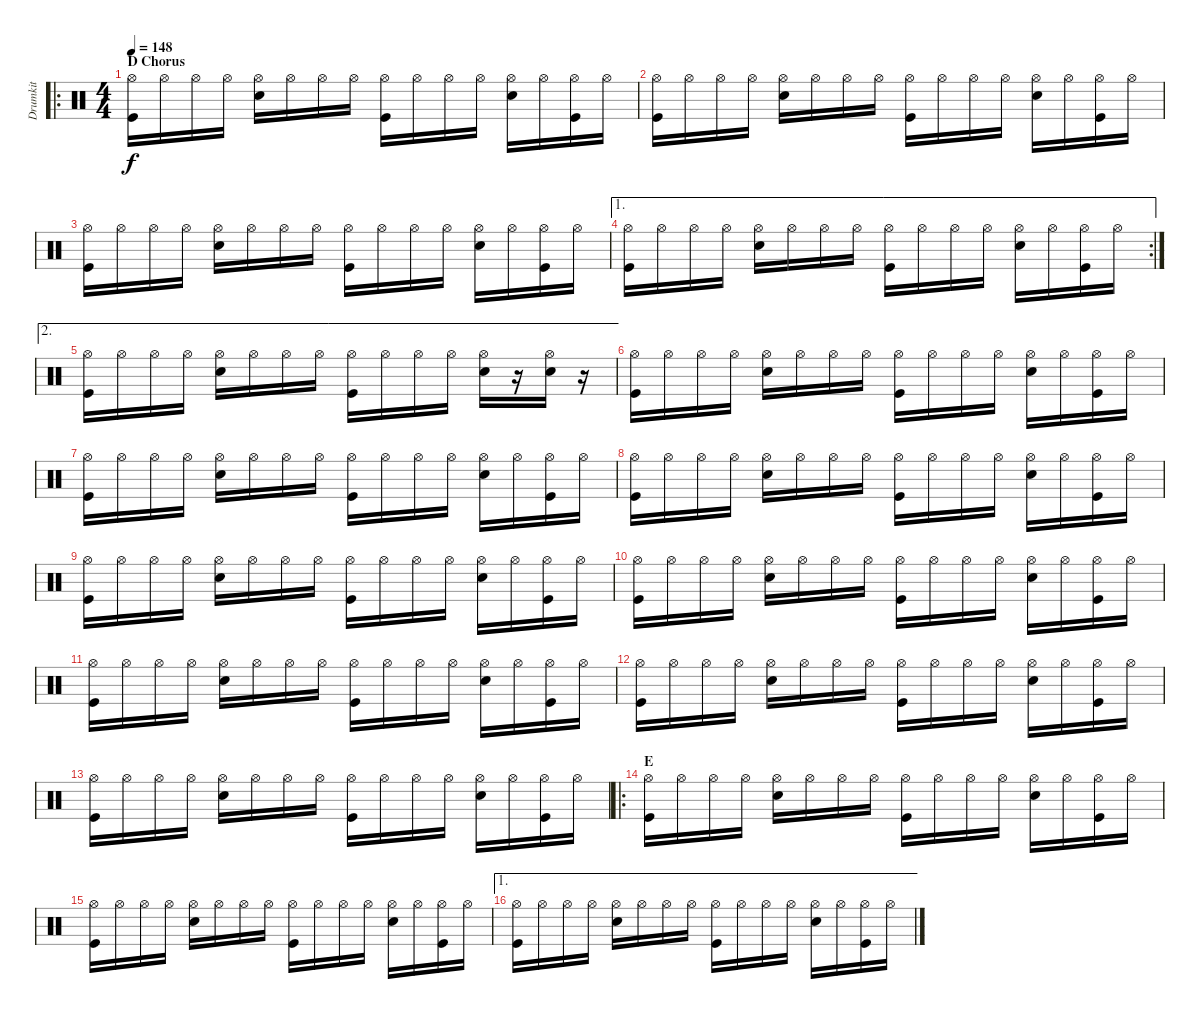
\track ("Drumkit" "Drumkit") {instrument percussion}
\staff {score}
\articulation defaults
\ro
\ts (4 4)
\section ("" "D Chorus")
\tempo 148
\clef neutral
\ks c
("Hi-Hat (open)" "Kick (hit)").16{dy f} "Hi-Hat (open)".16 "Hi-Hat (open)".16 "Hi-Hat (open)".16 ("Hi-Hat (open)" "Snare (hit) 2").16 "Hi-Hat (open)".16 "Hi-Hat (open)".16 "Hi-Hat (open)".16 ("Hi-Hat (open)" "Kick (hit)").16 "Hi-Hat (open)".16 "Hi-Hat (open)".16 "Hi-Hat (open)".16 ("Hi-Hat (open)" "Snare (hit) 2").16 "Hi-Hat (open)".16 ("Hi-Hat (open)" "Kick (hit)").16 "Hi-Hat (open)".16 |
("Hi-Hat (open)" "Kick (hit)").16 "Hi-Hat (open)".16 "Hi-Hat (open)".16 "Hi-Hat (open)".16 ("Hi-Hat (open)" "Snare (hit) 2").16 "Hi-Hat (open)".16 "Hi-Hat (open)".16 "Hi-Hat (open)".16 ("Hi-Hat (open)" "Kick (hit)").16 "Hi-Hat (open)".16 "Hi-Hat (open)".16 "Hi-Hat (open)".16 ("Hi-Hat (open)" "Snare (hit) 2").16 "Hi-Hat (open)".16 ("Hi-Hat (open)" "Kick (hit)").16 "Hi-Hat (open)".16 |
("Hi-Hat (open)" "Kick (hit)").16 "Hi-Hat (open)".16 "Hi-Hat (open)".16 "Hi-Hat (open)".16 ("Hi-Hat (open)" "Snare (hit) 2").16 "Hi-Hat (open)".16 "Hi-Hat (open)".16 "Hi-Hat (open)".16 ("Hi-Hat (open)" "Kick (hit)").16 "Hi-Hat (open)".16 "Hi-Hat (open)".16 "Hi-Hat (open)".16 ("Hi-Hat (open)" "Snare (hit) 2").16 "Hi-Hat (open)".16 ("Hi-Hat (open)" "Kick (hit)").16 "Hi-Hat (open)".16 |
\ae 1
\rc 2
("Hi-Hat (open)" "Kick (hit)").16 "Hi-Hat (open)".16 "Hi-Hat (open)".16 "Hi-Hat (open)".16 ("Hi-Hat (open)" "Snare (hit) 2").16 "Hi-Hat (open)".16 "Hi-Hat (open)".16 "Hi-Hat (open)".16 ("Hi-Hat (open)" "Kick (hit)").16 "Hi-Hat (open)".16 "Hi-Hat (open)".16 "Hi-Hat (open)".16 ("Hi-Hat (open)" "Snare (hit) 2").16 "Hi-Hat (open)".16 ("Hi-Hat (open)" "Kick (hit)").16 "Hi-Hat (open)".16 |
\ae 2
("Hi-Hat (open)" "Kick (hit)").16 "Hi-Hat (open)".16 "Hi-Hat (open)".16 "Hi-Hat (open)".16 ("Hi-Hat (open)" "Snare (hit) 2").16 "Hi-Hat (open)".16 "Hi-Hat (open)".16 "Hi-Hat (open)".16 ("Hi-Hat (open)" "Kick (hit)").16 "Hi-Hat (open)".16 "Hi-Hat (open)".16 "Hi-Hat (open)".16 ("Hi-Hat (open)" "Snare (hit) 2").16 r.16 ("Hi-Hat (open)" "Snare (hit) 2").16 r.16 |
("Hi-Hat (open)" "Kick (hit)").16 "Hi-Hat (open)".16 "Hi-Hat (open)".16 "Hi-Hat (open)".16 ("Hi-Hat (open)" "Snare (hit) 2").16 "Hi-Hat (open)".16 "Hi-Hat (open)".16 "Hi-Hat (open)".16 ("Hi-Hat (open)" "Kick (hit)").16 "Hi-Hat (open)".16 "Hi-Hat (open)".16 "Hi-Hat (open)".16 ("Hi-Hat (open)" "Snare (hit) 2").16 "Hi-Hat (open)".16 ("Hi-Hat (open)" "Kick (hit)").16 "Hi-Hat (open)".16 |
("Hi-Hat (open)" "Kick (hit)").16 "Hi-Hat (open)".16 "Hi-Hat (open)".16 "Hi-Hat (open)".16 ("Hi-Hat (open)" "Snare (hit) 2").16 "Hi-Hat (open)".16 "Hi-Hat (open)".16 "Hi-Hat (open)".16 ("Hi-Hat (open)" "Kick (hit)").16 "Hi-Hat (open)".16 "Hi-Hat (open)".16 "Hi-Hat (open)".16 ("Hi-Hat (open)" "Snare (hit) 2").16 "Hi-Hat (open)".16 ("Hi-Hat (open)" "Kick (hit)").16 "Hi-Hat (open)".16 |
("Hi-Hat (open)" "Kick (hit)").16 "Hi-Hat (open)".16 "Hi-Hat (open)".16 "Hi-Hat (open)".16 ("Hi-Hat (open)" "Snare (hit) 2").16 "Hi-Hat (open)".16 "Hi-Hat (open)".16 "Hi-Hat (open)".16 ("Hi-Hat (open)" "Kick (hit)").16 "Hi-Hat (open)".16 "Hi-Hat (open)".16 "Hi-Hat (open)".16 ("Hi-Hat (open)" "Snare (hit) 2").16 "Hi-Hat (open)".16 ("Hi-Hat (open)" "Kick (hit)").16 "Hi-Hat (open)".16 |
("Hi-Hat (open)" "Kick (hit)").16 "Hi-Hat (open)".16 "Hi-Hat (open)".16 "Hi-Hat (open)".16 ("Hi-Hat (open)" "Snare (hit) 2").16 "Hi-Hat (open)".16 "Hi-Hat (open)".16 "Hi-Hat (open)".16 ("Hi-Hat (open)" "Kick (hit)").16 "Hi-Hat (open)".16 "Hi-Hat (open)".16 "Hi-Hat (open)".16 ("Hi-Hat (open)" "Snare (hit) 2").16 "Hi-Hat (open)".16 ("Hi-Hat (open)" "Kick (hit)").16 "Hi-Hat (open)".16 |
("Hi-Hat (open)" "Kick (hit)").16 "Hi-Hat (open)".16 "Hi-Hat (open)".16 "Hi-Hat (open)".16 ("Hi-Hat (open)" "Snare (hit) 2").16 "Hi-Hat (open)".16 "Hi-Hat (open)".16 "Hi-Hat (open)".16 ("Hi-Hat (open)" "Kick (hit)").16 "Hi-Hat (open)".16 "Hi-Hat (open)".16 "Hi-Hat (open)".16 ("Hi-Hat (open)" "Snare (hit) 2").16 "Hi-Hat (open)".16 ("Hi-Hat (open)" "Kick (hit)").16 "Hi-Hat (open)".16 |
("Hi-Hat (open)" "Kick (hit)").16 "Hi-Hat (open)".16 "Hi-Hat (open)".16 "Hi-Hat (open)".16 ("Hi-Hat (open)" "Snare (hit) 2").16 "Hi-Hat (open)".16 "Hi-Hat (open)".16 "Hi-Hat (open)".16 ("Hi-Hat (open)" "Kick (hit)").16 "Hi-Hat (open)".16 "Hi-Hat (open)".16 "Hi-Hat (open)".16 ("Hi-Hat (open)" "Snare (hit) 2").16 "Hi-Hat (open)".16 ("Hi-Hat (open)" "Kick (hit)").16 "Hi-Hat (open)".16 |
("Hi-Hat (open)" "Kick (hit)").16 "Hi-Hat (open)".16 "Hi-Hat (open)".16 "Hi-Hat (open)".16 ("Hi-Hat (open)" "Snare (hit) 2").16 "Hi-Hat (open)".16 "Hi-Hat (open)".16 "Hi-Hat (open)".16 ("Hi-Hat (open)" "Kick (hit)").16 "Hi-Hat (open)".16 "Hi-Hat (open)".16 "Hi-Hat (open)".16 ("Hi-Hat (open)" "Snare (hit) 2").16 "Hi-Hat (open)".16 ("Hi-Hat (open)" "Kick (hit)").16 "Hi-Hat (open)".16 |
("Hi-Hat (open)" "Kick (hit)").16 "Hi-Hat (open)".16 "Hi-Hat (open)".16 "Hi-Hat (open)".16 ("Hi-Hat (open)" "Snare (hit) 2").16 "Hi-Hat (open)".16 "Hi-Hat (open)".16 "Hi-Hat (open)".16 ("Hi-Hat (open)" "Kick (hit)").16 "Hi-Hat (open)".16 "Hi-Hat (open)".16 "Hi-Hat (open)".16 ("Hi-Hat (open)" "Snare (hit) 2").16 "Hi-Hat (open)".16 ("Hi-Hat (open)" "Kick (hit)").16 "Hi-Hat (open)".16 |
\ro
\section ("" "E ")
("Hi-Hat (open)" "Kick (hit)").16 "Hi-Hat (open)".16 "Hi-Hat (open)".16 "Hi-Hat (open)".16 ("Hi-Hat (open)" "Snare (hit) 2").16 "Hi-Hat (open)".16 "Hi-Hat (open)".16 "Hi-Hat (open)".16 ("Hi-Hat (open)" "Kick (hit)").16 "Hi-Hat (open)".16 "Hi-Hat (open)".16 "Hi-Hat (open)".16 ("Hi-Hat (open)" "Snare (hit) 2").16 "Hi-Hat (open)".16 ("Hi-Hat (open)" "Kick (hit)").16 "Hi-Hat (open)".16 |
("Hi-Hat (open)" "Kick (hit)").16 "Hi-Hat (open)".16 "Hi-Hat (open)".16 "Hi-Hat (open)".16 ("Hi-Hat (open)" "Snare (hit) 2").16 "Hi-Hat (open)".16 "Hi-Hat (open)".16 "Hi-Hat (open)".16 ("Hi-Hat (open)" "Kick (hit)").16 "Hi-Hat (open)".16 "Hi-Hat (open)".16 "Hi-Hat (open)".16 ("Hi-Hat (open)" "Snare (hit) 2").16 "Hi-Hat (open)".16 ("Hi-Hat (open)" "Kick (hit)").16 "Hi-Hat (open)".16 |
\ae 1
("Hi-Hat (open)" "Kick (hit)").16 "Hi-Hat (open)".16 "Hi-Hat (open)".16 "Hi-Hat (open)".16 ("Hi-Hat (open)" "Snare (hit) 2").16 "Hi-Hat (open)".16 "Hi-Hat (open)".16 "Hi-Hat (open)".16 ("Hi-Hat (open)" "Kick (hit)").16 "Hi-Hat (open)".16 "Hi-Hat (open)".16 "Hi-Hat (open)".16 ("Hi-Hat (open)" "Snare (hit) 2").16 "Hi-Hat (open)".16 ("Hi-Hat (open)" "Kick (hit)").16 "Hi-Hat (open)".16
